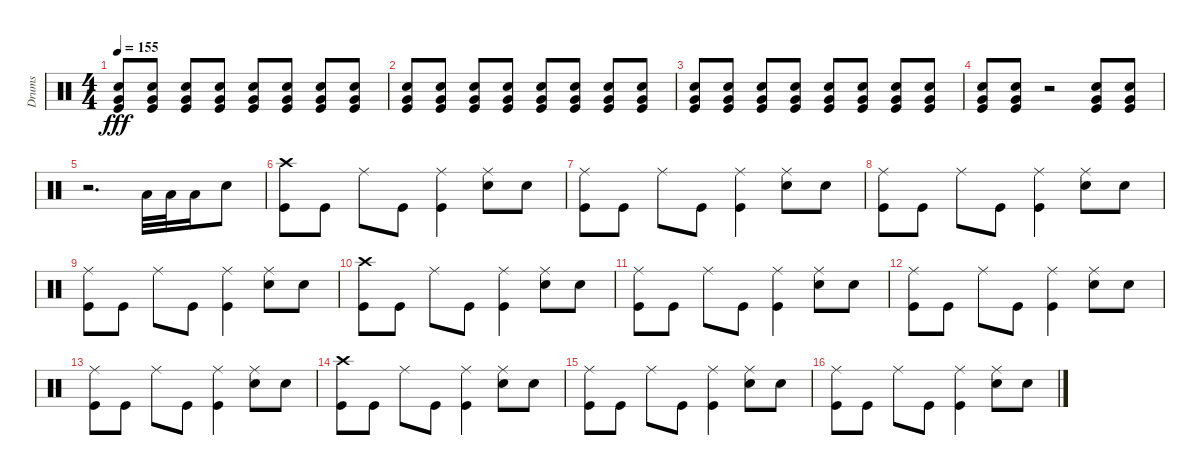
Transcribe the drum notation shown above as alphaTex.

\track ("Drums               " "Drums     ") {instrument percussion}
\staff {score}
\articulation defaults
\ts (4 4)
\tempo 155
\clef neutral
\ks c
("Kick (hit)" "Snare (hit) 2" "Very Low Tom (hit)").8{dy fff volume 5} ("Kick (hit)" "Snare (hit) 2" "Very Low Tom (hit)").8 ("Kick (hit)" "Snare (hit) 2" "Very Low Tom (hit)").8 ("Kick (hit)" "Snare (hit) 2" "Very Low Tom (hit)").8 ("Kick (hit)" "Snare (hit) 2" "Very Low Tom (hit)").8 ("Kick (hit)" "Snare (hit) 2" "Very Low Tom (hit)").8 ("Kick (hit)" "Snare (hit) 2" "Very Low Tom (hit)").8 ("Kick (hit)" "Snare (hit) 2" "Very Low Tom (hit)").8 |
("Kick (hit)" "Snare (hit) 2" "Very Low Tom (hit)").8{volume 6} ("Kick (hit)" "Snare (hit) 2" "Very Low Tom (hit)").8 ("Kick (hit)" "Snare (hit) 2" "Very Low Tom (hit)").8 ("Kick (hit)" "Snare (hit) 2" "Very Low Tom (hit)").8 ("Kick (hit)" "Snare (hit) 2" "Very Low Tom (hit)").8 ("Kick (hit)" "Snare (hit) 2" "Very Low Tom (hit)").8 ("Kick (hit)" "Snare (hit) 2" "Very Low Tom (hit)").8 ("Kick (hit)" "Snare (hit) 2" "Very Low Tom (hit)").8 |
("Kick (hit)" "Snare (hit) 2" "Very Low Tom (hit)").8{volume 8} ("Kick (hit)" "Snare (hit) 2" "Very Low Tom (hit)").8 ("Kick (hit)" "Snare (hit) 2" "Very Low Tom (hit)").8 ("Kick (hit)" "Snare (hit) 2" "Very Low Tom (hit)").8 ("Kick (hit)" "Snare (hit) 2" "Very Low Tom (hit)").8 ("Kick (hit)" "Snare (hit) 2" "Very Low Tom (hit)").8 ("Snare (hit) 2" "Kick (hit)" "Very Low Tom (hit)").8 ("Snare (hit) 2" "Kick (hit)" "Very Low Tom (hit)").8 |
("Kick (hit)" "Snare (hit) 2" "Very Low Tom (hit)").8{volume 16} ("Kick (hit)" "Snare (hit) 2" "Very Low Tom (hit)").8 r.2 ("Snare (hit) 2" "Kick (hit)" "Very Low Tom (hit)").8 ("Snare (hit) 2" "Kick (hit)" "Very Low Tom (hit)").8 |
r.2{d} "Low Tom (hit)".32 "Low Tom (hit)".32 "Low Tom (hit)".16 "Snare (hit) 2".8 |
("Kick (hit)" "Crash high (hit)").8 "Kick (hit)".8 "Ride (middle)".8 "Kick (hit)".8 ("Kick (hit)" "Ride (middle)").4 ("Snare (hit) 2" "Ride (middle)").8 "Snare (hit) 2".8 |
("Kick (hit)" "Ride (middle)").8 "Kick (hit)".8 "Ride (middle)".8 "Kick (hit)".8 ("Kick (hit)" "Ride (middle)").4 ("Snare (hit) 2" "Ride (middle)").8 "Snare (hit) 2".8 |
("Kick (hit)" "Ride (middle)").8 "Kick (hit)".8 "Ride (middle)".8 "Kick (hit)".8 ("Kick (hit)" "Ride (middle)").4 ("Snare (hit) 2" "Ride (middle)").8 "Snare (hit) 2".8 |
("Kick (hit)" "Ride (middle)").8 "Kick (hit)".8 "Ride (middle)".8 "Kick (hit)".8 ("Kick (hit)" "Ride (middle)").4 ("Snare (hit) 2" "Ride (middle)").8 "Snare (hit) 2".8 |
("Kick (hit)" "Crash high (hit)").8 "Kick (hit)".8 "Ride (middle)".8 "Kick (hit)".8 ("Kick (hit)" "Ride (middle)").4 ("Snare (hit) 2" "Ride (middle)").8 "Snare (hit) 2".8 |
("Kick (hit)" "Ride (middle)").8 "Kick (hit)".8 "Ride (middle)".8 "Kick (hit)".8 ("Kick (hit)" "Ride (middle)").4 ("Snare (hit) 2" "Ride (middle)").8 "Snare (hit) 2".8 |
("Kick (hit)" "Ride (middle)").8 "Kick (hit)".8 "Ride (middle)".8 "Kick (hit)".8 ("Kick (hit)" "Ride (middle)").4 ("Snare (hit) 2" "Ride (middle)").8 "Snare (hit) 2".8 |
("Kick (hit)" "Ride (middle)").8 "Kick (hit)".8 "Ride (middle)".8 "Kick (hit)".8 ("Kick (hit)" "Ride (middle)").4 ("Snare (hit) 2" "Ride (middle)").8 "Snare (hit) 2".8 |
("Kick (hit)" "Crash high (hit)").8 "Kick (hit)".8 "Ride (middle)".8 "Kick (hit)".8 ("Kick (hit)" "Ride (middle)").4 ("Snare (hit) 2" "Ride (middle)").8 "Snare (hit) 2".8 |
("Kick (hit)" "Ride (middle)").8 "Kick (hit)".8 "Ride (middle)".8 "Kick (hit)".8 ("Kick (hit)" "Ride (middle)").4 ("Snare (hit) 2" "Ride (middle)").8 "Snare (hit) 2".8 |
("Kick (hit)" "Ride (middle)").8 "Kick (hit)".8 "Ride (middle)".8 "Kick (hit)".8 ("Kick (hit)" "Ride (middle)").4 ("Snare (hit) 2" "Ride (middle)").8 "Snare (hit) 2".8
